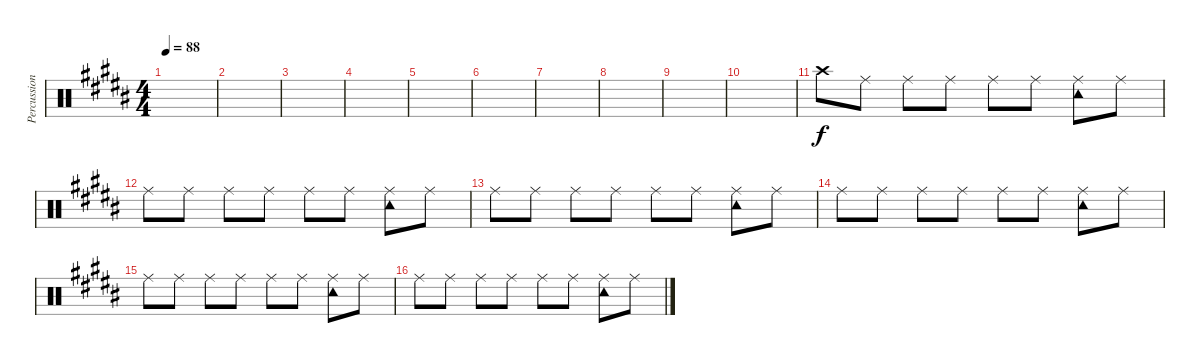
\track ("Percussions" "Percussion") {instrument percussion}
\staff {score}
\articulation defaults
\ts (4 4)
\tempo 88
\clef neutral
\ks b
|
|
|
|
|
|
|
|
|
|
"Crash high (hit)".8 "Ride (middle)".8 "Ride (middle)".8 "Ride (middle)".8 "Ride (middle)".8 "Ride (middle)".8 ("Ride (middle)" "Tambourine (hit)").8 "Ride (middle)".8 |
"Ride (middle)".8 "Ride (middle)".8 "Ride (middle)".8 "Ride (middle)".8 "Ride (middle)".8 "Ride (middle)".8 ("Ride (middle)" "Tambourine (hit)").8 "Ride (middle)".8 |
"Ride (middle)".8 "Ride (middle)".8 "Ride (middle)".8 "Ride (middle)".8 "Ride (middle)".8 "Ride (middle)".8 ("Ride (middle)" "Tambourine (hit)").8 "Ride (middle)".8 |
"Ride (middle)".8 "Ride (middle)".8 "Ride (middle)".8 "Ride (middle)".8 "Ride (middle)".8 "Ride (middle)".8 ("Ride (middle)" "Tambourine (hit)").8 "Ride (middle)".8 |
"Ride (middle)".8 "Ride (middle)".8 "Ride (middle)".8 "Ride (middle)".8 "Ride (middle)".8 "Ride (middle)".8 ("Ride (middle)" "Tambourine (hit)").8 "Ride (middle)".8 |
"Ride (middle)".8 "Ride (middle)".8 "Ride (middle)".8 "Ride (middle)".8 "Ride (middle)".8 "Ride (middle)".8 ("Ride (middle)" "Tambourine (hit)").8 "Ride (middle)".8
